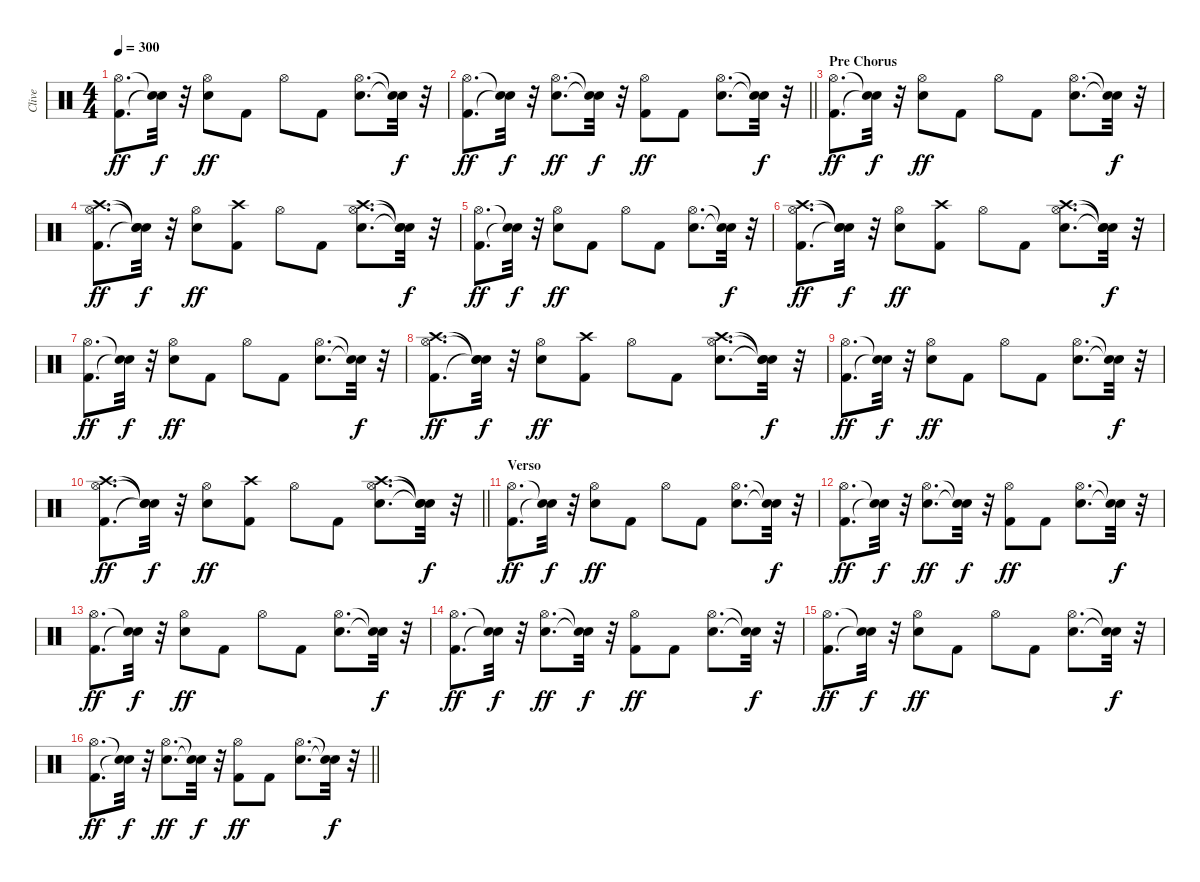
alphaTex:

\track ("Clive" "Clive") {instrument percussion}
\staff {score}
\articulation defaults
\ts (4 4)
\tempo 300
\clef neutral
\ks c
("Kick (hit) 2" "Hi-Hat (open)").8{d dy ff} ("Snare (hit)"{t} "Snare (hit)"{t}).32{dy f} r.32 ("Snare (hit) 2" "Hi-Hat (open)").8{dy ff} "Kick (hit) 2".8 "Hi-Hat (open)".8 "Kick (hit) 2".8 ("Snare (hit) 2" "Hi-Hat (open)").8{d} ("Snare (hit)"{t} "Snare (hit)"{t}).32{dy f} r.32 |
\barLineRight lightlight
("Kick (hit) 2" "Hi-Hat (open)").8{d dy ff} ("Snare (hit)"{t} "Snare (hit)"{t}).32{dy f} r.32 ("Snare (hit) 2" "Hi-Hat (open)").8{d dy ff} ("Snare (hit)"{t} "Snare (hit)"{t}).32{dy f} r.32 ("Kick (hit) 2" "Hi-Hat (open)").8{dy ff} "Kick (hit) 2".8 ("Snare (hit) 2" "Hi-Hat (open)").8{d} ("Snare (hit)"{t} "Snare (hit)"{t}).32{dy f} r.32 |
\section ("" "Pre Chorus")
("Kick (hit) 2" "Hi-Hat (open)").8{d dy ff} ("Snare (hit)"{t} "Snare (hit)"{t}).32{dy f} r.32 ("Snare (hit) 2" "Hi-Hat (open)").8{dy ff} "Kick (hit) 2".8 "Hi-Hat (open)".8 "Kick (hit) 2".8 ("Snare (hit) 2" "Hi-Hat (open)").8{d} ("Snare (hit)"{t} "Snare (hit)"{t}).32{dy f} r.32 |
("Kick (hit) 2" "Hi-Hat (open)" "Crash high (hit)").8{d dy ff} ("Snare (hit)"{t} "Snare (hit)"{t} "Snare (hit)"{t}).32{dy f} r.32 ("Snare (hit) 2" "Hi-Hat (open)").8{dy ff} ("Kick (hit) 2" "Crash high (hit)").8 "Hi-Hat (open)".8 "Kick (hit) 2".8 ("Snare (hit) 2" "Hi-Hat (open)" "Crash high (hit)").8{d} ("Snare (hit)"{t} "Snare (hit)"{t} "Snare (hit)"{t}).32{dy f} r.32 |
("Kick (hit) 2" "Hi-Hat (open)").8{d dy ff} ("Snare (hit)"{t} "Snare (hit)"{t}).32{dy f} r.32 ("Snare (hit) 2" "Hi-Hat (open)").8{dy ff} "Kick (hit) 2".8 "Hi-Hat (open)".8 "Kick (hit) 2".8 ("Snare (hit) 2" "Hi-Hat (open)").8{d} ("Snare (hit)"{t} "Snare (hit)"{t}).32{dy f} r.32 |
("Kick (hit) 2" "Hi-Hat (open)" "Crash high (hit)").8{d dy ff} ("Snare (hit)"{t} "Snare (hit)"{t} "Snare (hit)"{t}).32{dy f} r.32 ("Snare (hit) 2" "Hi-Hat (open)").8{dy ff} ("Kick (hit) 2" "Crash high (hit)").8 "Hi-Hat (open)".8 "Kick (hit) 2".8 ("Snare (hit) 2" "Hi-Hat (open)" "Crash high (hit)").8{d} ("Snare (hit)"{t} "Snare (hit)"{t} "Snare (hit)"{t}).32{dy f} r.32 |
("Kick (hit) 2" "Hi-Hat (open)").8{d dy ff} ("Snare (hit)"{t} "Snare (hit)"{t}).32{dy f} r.32 ("Snare (hit) 2" "Hi-Hat (open)").8{dy ff} "Kick (hit) 2".8 "Hi-Hat (open)".8 "Kick (hit) 2".8 ("Snare (hit) 2" "Hi-Hat (open)").8{d} ("Snare (hit)"{t} "Snare (hit)"{t}).32{dy f} r.32 |
("Kick (hit) 2" "Hi-Hat (open)" "Crash high (hit)").8{d dy ff} ("Snare (hit)"{t} "Snare (hit)"{t} "Snare (hit)"{t}).32{dy f} r.32 ("Snare (hit) 2" "Hi-Hat (open)").8{dy ff} ("Kick (hit) 2" "Crash high (hit)").8 "Hi-Hat (open)".8 "Kick (hit) 2".8 ("Snare (hit) 2" "Hi-Hat (open)" "Crash high (hit)").8{d} ("Snare (hit)"{t} "Snare (hit)"{t} "Snare (hit)"{t}).32{dy f} r.32 |
("Kick (hit) 2" "Hi-Hat (open)").8{d dy ff} ("Snare (hit)"{t} "Snare (hit)"{t}).32{dy f} r.32 ("Snare (hit) 2" "Hi-Hat (open)").8{dy ff} "Kick (hit) 2".8 "Hi-Hat (open)".8 "Kick (hit) 2".8 ("Snare (hit) 2" "Hi-Hat (open)").8{d} ("Snare (hit)"{t} "Snare (hit)"{t}).32{dy f} r.32 |
\barLineRight lightlight
("Kick (hit) 2" "Hi-Hat (open)" "Crash high (hit)").8{d dy ff} ("Snare (hit)"{t} "Snare (hit)"{t} "Snare (hit)"{t}).32{dy f} r.32 ("Snare (hit) 2" "Hi-Hat (open)").8{dy ff} ("Kick (hit) 2" "Crash high (hit)").8 "Hi-Hat (open)".8 "Kick (hit) 2".8 ("Snare (hit) 2" "Hi-Hat (open)" "Crash high (hit)").8{d} ("Snare (hit)"{t} "Snare (hit)"{t} "Snare (hit)"{t}).32{dy f} r.32 |
\section ("" "Verso")
("Kick (hit) 2" "Hi-Hat (open)").8{d dy ff} ("Snare (hit)"{t} "Snare (hit)"{t}).32{dy f} r.32 ("Snare (hit) 2" "Hi-Hat (open)").8{dy ff} "Kick (hit) 2".8 "Hi-Hat (open)".8 "Kick (hit) 2".8 ("Snare (hit) 2" "Hi-Hat (open)").8{d} ("Snare (hit)"{t} "Snare (hit)"{t}).32{dy f} r.32 |
("Kick (hit) 2" "Hi-Hat (open)").8{d dy ff} ("Snare (hit)"{t} "Snare (hit)"{t}).32{dy f} r.32 ("Snare (hit) 2" "Hi-Hat (open)").8{d dy ff} ("Snare (hit)"{t} "Snare (hit)"{t}).32{dy f} r.32 ("Kick (hit) 2" "Hi-Hat (open)").8{dy ff} "Kick (hit) 2".8 ("Snare (hit) 2" "Hi-Hat (open)").8{d} ("Snare (hit)"{t} "Snare (hit)"{t}).32{dy f} r.32 |
("Kick (hit) 2" "Hi-Hat (open)").8{d dy ff} ("Snare (hit)"{t} "Snare (hit)"{t}).32{dy f} r.32 ("Snare (hit) 2" "Hi-Hat (open)").8{dy ff} "Kick (hit) 2".8 "Hi-Hat (open)".8 "Kick (hit) 2".8 ("Snare (hit) 2" "Hi-Hat (open)").8{d} ("Snare (hit)"{t} "Snare (hit)"{t}).32{dy f} r.32 |
("Kick (hit) 2" "Hi-Hat (open)").8{d dy ff} ("Snare (hit)"{t} "Snare (hit)"{t}).32{dy f} r.32 ("Snare (hit) 2" "Hi-Hat (open)").8{d dy ff} ("Snare (hit)"{t} "Snare (hit)"{t}).32{dy f} r.32 ("Kick (hit) 2" "Hi-Hat (open)").8{dy ff} "Kick (hit) 2".8 ("Snare (hit) 2" "Hi-Hat (open)").8{d} ("Snare (hit)"{t} "Snare (hit)"{t}).32{dy f} r.32 |
("Kick (hit) 2" "Hi-Hat (open)").8{d dy ff} ("Snare (hit)"{t} "Snare (hit)"{t}).32{dy f} r.32 ("Snare (hit) 2" "Hi-Hat (open)").8{dy ff} "Kick (hit) 2".8 "Hi-Hat (open)".8 "Kick (hit) 2".8 ("Snare (hit) 2" "Hi-Hat (open)").8{d} ("Snare (hit)"{t} "Snare (hit)"{t}).32{dy f} r.32 |
\barLineRight lightlight
("Kick (hit) 2" "Hi-Hat (open)").8{d dy ff} ("Snare (hit)"{t} "Snare (hit)"{t}).32{dy f} r.32 ("Snare (hit) 2" "Hi-Hat (open)").8{d dy ff} ("Snare (hit)"{t} "Snare (hit)"{t}).32{dy f} r.32 ("Kick (hit) 2" "Hi-Hat (open)").8{dy ff} "Kick (hit) 2".8 ("Snare (hit) 2" "Hi-Hat (open)").8{d} ("Snare (hit)"{t} "Snare (hit)"{t}).32{dy f} r.32
